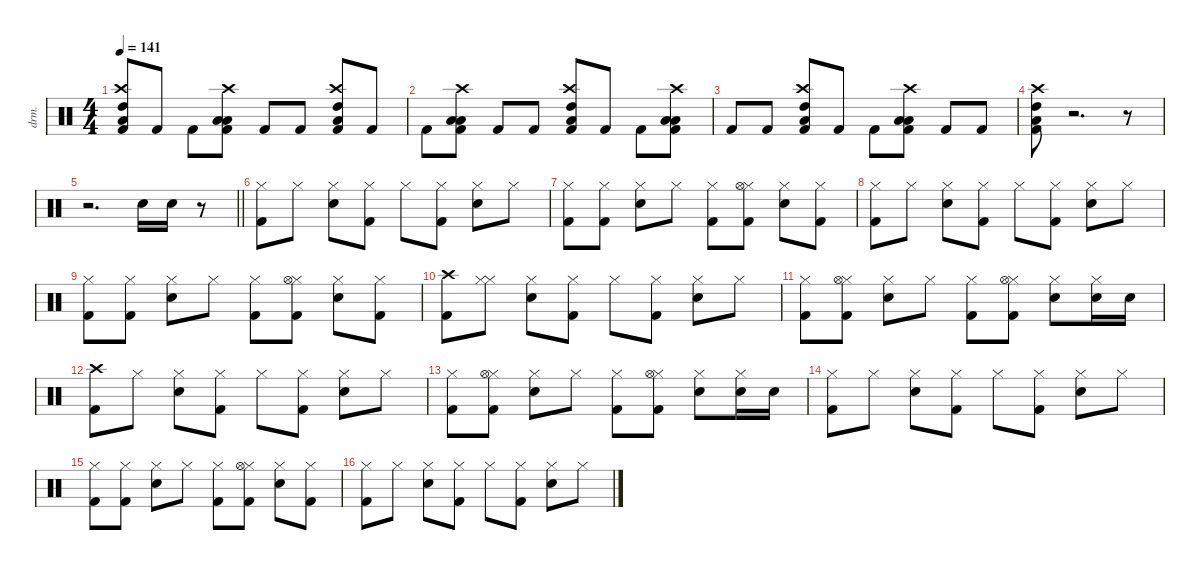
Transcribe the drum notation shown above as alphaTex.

\defaultSystemsLayout 4
\hideDynamics
\bracketExtendMode nobrackets
\otherSystemsTrackNameOrientation horizontal
\track ("Drum" "drm.") {instrument percussion}
\staff {score}
\articulation defaults
\ts (4 4)
\tempo 141
\clef neutral
\ks c
("Kick (hit) 2" "High Tom (hit)" "Low Tom (hit)" "Crash high (hit)").8{dy fff beam Up} "Kick (hit) 2".8{dy ff beam Up} "Kick (hit) 2".8{beam Down} ("Kick (hit) 2" "Low Tom (hit)" "Low Floor Tom (hit)" "Crash high (hit)").8{dy fff beam Down} "Kick (hit) 2".8{dy ff beam Up} "Kick (hit) 2".8{beam Up} ("Kick (hit) 2" "High Tom (hit)" "Crash high (hit)" "Low Tom (hit)").8{dy fff beam Up} "Kick (hit) 2".8{dy ff beam Up} |
"Kick (hit) 2".8{beam Down} ("Kick (hit) 2" "Low Tom (hit)" "Low Floor Tom (hit)" "Crash high (hit)").8{dy fff beam Down} "Kick (hit) 2".8{dy ff beam Up} "Kick (hit) 2".8{beam Up} ("High Tom (hit)" "Kick (hit) 2" "Low Tom (hit)" "Crash high (hit)").8{dy fff beam Up} "Kick (hit) 2".8{dy ff beam Up} "Kick (hit) 2".8{beam Down} ("Kick (hit) 2" "Low Tom (hit)" "Low Floor Tom (hit)" "Crash high (hit)").8{dy fff beam Down} |
"Kick (hit) 2".8{dy ff beam Up} "Kick (hit) 2".8{beam Up} ("Kick (hit) 2" "High Tom (hit)" "Low Tom (hit)" "Crash high (hit)").8{dy fff beam Up} "Kick (hit) 2".8{dy ff beam Up} "Kick (hit) 2".8{beam Down} ("Kick (hit) 2" "Low Tom (hit)" "Low Floor Tom (hit)" "Crash high (hit)").8{dy fff beam Down} "Kick (hit) 2".8{dy ff beam Up} "Kick (hit) 2".8{beam Up} |
("Kick (hit) 2" "High Tom (hit)" "Low Tom (hit)" "Crash high (hit)").8{dy fff beam Down} r.2{d beam Down} r.8{beam Down} |
\barLineRight lightlight
r.2{d beam Down} "Snare (hit) 2".16{beam Down} "Snare (hit) 2".16{beam Down} r.8{beam Down} |
("Hi-Hat (closed)" "Kick (hit) 2").8{beam Down} "Hi-Hat (closed)".8{dy f beam Down} ("Hi-Hat (closed)" "Snare (hit) 2").8{dy fff beam Down} ("Hi-Hat (closed)" "Kick (hit) 2").8{beam Down} "Hi-Hat (closed)".8{beam Down} ("Hi-Hat (closed)" "Kick (hit) 2").8{dy f beam Down} ("Hi-Hat (closed)" "Snare (hit) 2").8{dy fff beam Down} "Hi-Hat (closed)".8{dy f beam Down} |
("Hi-Hat (closed)" "Kick (hit) 2").8{dy fff beam Down} ("Hi-Hat (closed)" "Kick (hit) 2").8{beam Down} ("Hi-Hat (closed)" "Snare (hit) 2").8{beam Down} "Hi-Hat (closed)".8{dy f beam Down} ("Hi-Hat (closed)" "Kick (hit) 2").8{dy fff beam Down} ("Hi-Hat (closed)" "Kick (hit) 2" "Hi-Hat (open)").8{beam Down} ("Hi-Hat (closed)" "Snare (hit) 2").8{beam Down} ("Hi-Hat (closed)" "Kick (hit) 2").8{dy f beam Down} |
("Hi-Hat (closed)" "Kick (hit) 2").8{dy fff beam Down} "Hi-Hat (closed)".8{dy f beam Down} ("Hi-Hat (closed)" "Snare (hit) 2").8{dy fff beam Down} ("Hi-Hat (closed)" "Kick (hit) 2").8{beam Down} "Hi-Hat (closed)".8{beam Down} ("Hi-Hat (closed)" "Kick (hit) 2").8{dy f beam Down} ("Hi-Hat (closed)" "Snare (hit) 2").8{dy fff beam Down} "Hi-Hat (closed)".8{dy f beam Down} |
("Hi-Hat (closed)" "Kick (hit) 2").8{dy fff beam Down} ("Hi-Hat (closed)" "Kick (hit) 2").8{beam Down} ("Hi-Hat (closed)" "Snare (hit) 2").8{beam Down} "Hi-Hat (closed)".8{dy f beam Down} ("Hi-Hat (closed)" "Kick (hit) 2").8{dy fff beam Down} ("Hi-Hat (closed)" "Kick (hit) 2" "Hi-Hat (open)").8{beam Down} ("Hi-Hat (closed)" "Snare (hit) 2").8{beam Down} ("Hi-Hat (closed)" "Kick (hit) 2").8{dy f beam Down} |
("Kick (hit) 2" "Crash high (hit)").8{dy fff beam Down} ("Hi-Hat (closed)" "Hi-Hat (closed)").8{dy f beam Down} ("Snare (hit) 2" "Hi-Hat (closed)").8{dy fff beam Down} ("Kick (hit) 2" "Hi-Hat (closed)").8{dy f beam Down} "Hi-Hat (closed)".8{beam Down} ("Kick (hit) 2" "Hi-Hat (closed)").8{beam Down} ("Snare (hit) 2" "Hi-Hat (closed)").8{dy fff beam Down} "Hi-Hat (closed)".8{dy f beam Down} |
("Kick (hit) 2" "Hi-Hat (closed)").8{dy fff beam Down} ("Kick (hit) 2" "Hi-Hat (closed)" "Hi-Hat (open)").8{beam Down} ("Snare (hit) 2" "Hi-Hat (closed)").8{beam Down} "Hi-Hat (closed)".8{dy f beam Down} ("Kick (hit) 2" "Hi-Hat (closed)").8{dy fff beam Down} ("Kick (hit) 2" "Hi-Hat (closed)" "Hi-Hat (open)").8{dy f beam Down} ("Snare (hit) 2" "Hi-Hat (closed)").8{dy fff beam Down} ("Snare (hit) 2" "Hi-Hat (closed)").16{beam Down} "Snare (hit) 2".16{beam Down} |
("Kick (hit) 2" "Crash high (hit)").8{beam Down} "Hi-Hat (closed)".8{dy f beam Down} ("Snare (hit) 2" "Hi-Hat (closed)").8{dy fff beam Down} ("Kick (hit) 2" "Hi-Hat (closed)").8{beam Down} "Hi-Hat (closed)".8{dy f beam Down} ("Kick (hit) 2" "Hi-Hat (closed)").8{dy fff beam Down} ("Snare (hit) 2" "Hi-Hat (closed)").8{beam Down} "Hi-Hat (closed)".8{dy f beam Down} |
("Hi-Hat (closed)" "Kick (hit) 2").8{dy fff beam Down} ("Hi-Hat (closed)" "Kick (hit) 2" "Hi-Hat (open)").8{beam Down} ("Hi-Hat (closed)" "Snare (hit) 2").8{beam Down} "Hi-Hat (closed)".8{dy f beam Down} ("Hi-Hat (closed)" "Kick (hit) 2").8{dy fff beam Down} ("Hi-Hat (closed)" "Kick (hit) 2" "Hi-Hat (open)").8{beam Down} ("Hi-Hat (closed)" "Snare (hit) 2").8{beam Down} ("Hi-Hat (closed)" "Snare (hit) 2").16{dy f beam Down} "Snare (hit) 2".16{beam Down} |
("Hi-Hat (closed)" "Kick (hit) 2").8{dy fff beam Down} "Hi-Hat (closed)".8{dy f beam Down} ("Hi-Hat (closed)" "Snare (hit) 2").8{dy fff beam Down} ("Hi-Hat (closed)" "Kick (hit) 2").8{beam Down} "Hi-Hat (closed)".8{beam Down} ("Hi-Hat (closed)" "Kick (hit) 2").8{dy f beam Down} ("Hi-Hat (closed)" "Snare (hit) 2").8{dy fff beam Down} "Hi-Hat (closed)".8{dy f beam Down} |
("Hi-Hat (closed)" "Kick (hit) 2").8{dy fff beam Down} ("Hi-Hat (closed)" "Kick (hit) 2").8{beam Down} ("Hi-Hat (closed)" "Snare (hit) 2").8{beam Down} "Hi-Hat (closed)".8{dy f beam Down} ("Hi-Hat (closed)" "Kick (hit) 2").8{dy fff beam Down} ("Hi-Hat (closed)" "Kick (hit) 2" "Hi-Hat (open)").8{beam Down} ("Hi-Hat (closed)" "Snare (hit) 2").8{beam Down} ("Hi-Hat (closed)" "Kick (hit) 2").8{dy f beam Down} |
("Hi-Hat (closed)" "Kick (hit) 2").8{dy fff beam Down} "Hi-Hat (closed)".8{dy f beam Down} ("Hi-Hat (closed)" "Snare (hit) 2").8{dy fff beam Down} ("Hi-Hat (closed)" "Kick (hit) 2").8{beam Down} "Hi-Hat (closed)".8{beam Down} ("Hi-Hat (closed)" "Kick (hit) 2").8{dy f beam Down} ("Hi-Hat (closed)" "Snare (hit) 2").8{dy fff beam Down} "Hi-Hat (closed)".8{dy f beam Down}
